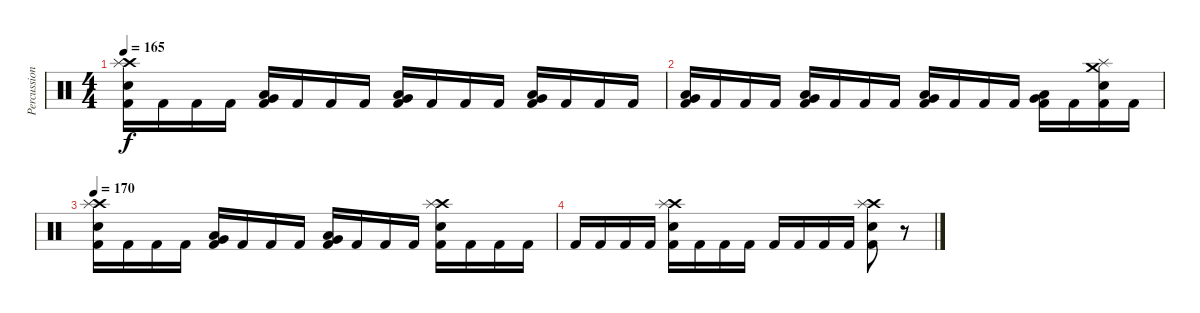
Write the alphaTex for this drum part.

\track ("Percussion" "Percussion") {instrument percussion}
\staff {score}
\articulation defaults
\ts (4 4)
\tempo 165
\clef neutral
\ks c
("Crash high (hit)" "Splash (hit)" "Electric Snare (hit)" "Kick (hit) 2").16{dy f} "Kick (hit) 2".16 "Kick (hit) 2".16 "Kick (hit) 2".16 ("Very Low Tom (hit)" "Low Floor Tom (hit)" "Kick (hit) 2").16 "Kick (hit) 2".16 "Kick (hit) 2".16 "Kick (hit) 2".16 ("Very Low Tom (hit)" "Low Floor Tom (hit)" "Kick (hit) 2").16 "Kick (hit) 2".16 "Kick (hit) 2".16 "Kick (hit) 2".16 ("Very Low Tom (hit)" "Low Floor Tom (hit)" "Kick (hit) 2").16 "Kick (hit) 2".16 "Kick (hit) 2".16 "Kick (hit) 2".16 |
("Very Low Tom (hit)" "Low Floor Tom (hit)" "Kick (hit) 2").16 "Kick (hit) 2".16 "Kick (hit) 2".16 "Kick (hit) 2".16 ("Very Low Tom (hit)" "Low Floor Tom (hit)" "Kick (hit) 2").16 "Kick (hit) 2".16 "Kick (hit) 2".16 "Kick (hit) 2".16 ("Very Low Tom (hit)" "Low Floor Tom (hit)" "Kick (hit) 2").16 "Kick (hit) 2".16 "Kick (hit) 2".16 "Kick (hit) 2".16 ("Very Low Tom (hit)" "Low Floor Tom (hit)" "Kick (hit) 2").16 "Kick (hit) 2".16 ("Crash medium (hit)" "Splash (hit)" "Electric Snare (hit)" "Kick (hit) 2").16 "Kick (hit) 2".16 |
\tempo 170
("Crash high (hit)" "Splash (hit)" "Electric Snare (hit)" "Kick (hit) 2").16 "Kick (hit) 2".16 "Kick (hit) 2".16 "Kick (hit) 2".16 ("Very Low Tom (hit)" "Low Floor Tom (hit)" "Kick (hit) 2").16 "Kick (hit) 2".16 "Kick (hit) 2".16 "Kick (hit) 2".16 ("Very Low Tom (hit)" "Low Floor Tom (hit)" "Kick (hit) 2").16 "Kick (hit) 2".16 "Kick (hit) 2".16 "Kick (hit) 2".16 ("Crash high (hit)" "Splash (hit)" "Electric Snare (hit)" "Kick (hit) 2").16 "Kick (hit) 2".16 "Kick (hit) 2".16 "Kick (hit) 2".16 |
"Kick (hit) 2".16 "Kick (hit) 2".16 "Kick (hit) 2".16 "Kick (hit) 2".16 ("Crash high (hit)" "Splash (hit)" "Electric Snare (hit)" "Kick (hit) 2").16 "Kick (hit) 2".16 "Kick (hit) 2".16 "Kick (hit) 2".16 "Kick (hit) 2".16 "Kick (hit) 2".16 "Kick (hit) 2".16 "Kick (hit) 2".16 ("Crash high (hit)" "Splash (hit)" "Electric Snare (hit)" "Kick (hit) 2").8 r.8
